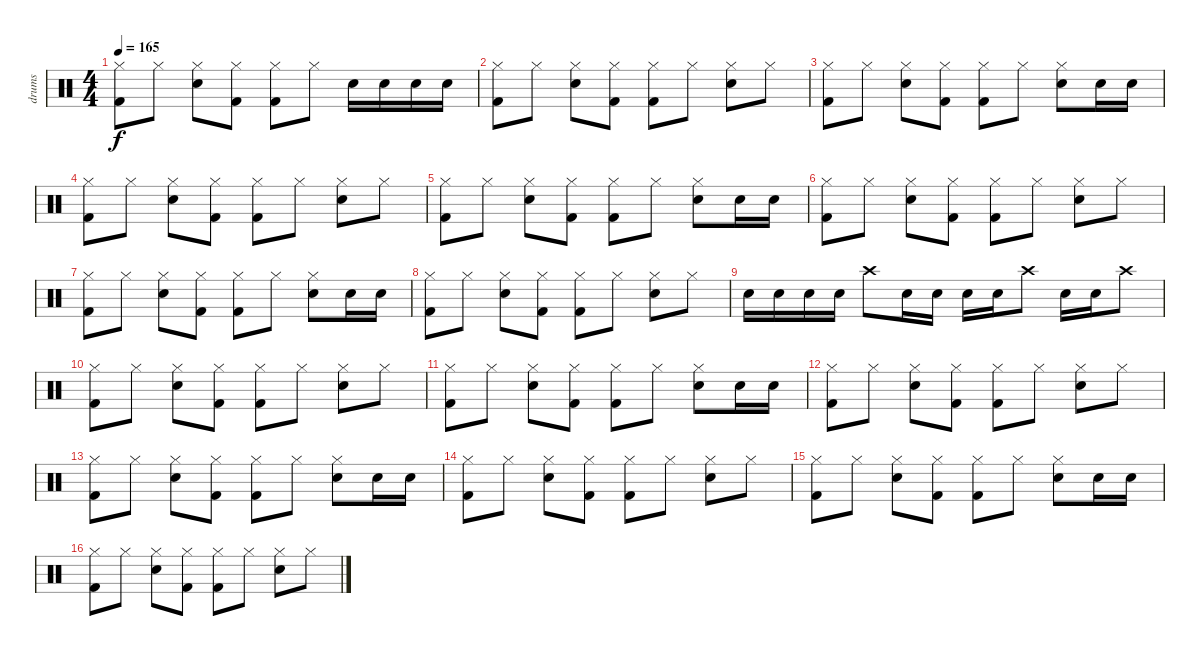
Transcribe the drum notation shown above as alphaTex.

\track ("drums" "drums") {instrument percussion}
\staff {score}
\articulation defaults
\ts (4 4)
\tempo 165
\clef neutral
\ks c
("Hi-Hat (closed)" "Kick (hit) 2").8{dy f} "Hi-Hat (closed)".8 ("Snare (hit) 2" "Hi-Hat (closed)").8 ("Hi-Hat (closed)" "Kick (hit) 2").8 ("Hi-Hat (closed)" "Kick (hit) 2").8 "Hi-Hat (closed)".8 "Snare (hit) 2".16 "Snare (hit) 2".16 "Snare (hit) 2".16 "Snare (hit) 2".16 |
("Hi-Hat (closed)" "Kick (hit) 2").8 "Hi-Hat (closed)".8 ("Snare (hit) 2" "Hi-Hat (closed)").8 ("Hi-Hat (closed)" "Kick (hit) 2").8 ("Hi-Hat (closed)" "Kick (hit) 2").8 "Hi-Hat (closed)".8 ("Snare (hit) 2" "Hi-Hat (closed)").8 "Hi-Hat (closed)".8 |
("Hi-Hat (closed)" "Kick (hit) 2").8 "Hi-Hat (closed)".8 ("Snare (hit) 2" "Hi-Hat (closed)").8 ("Hi-Hat (closed)" "Kick (hit) 2").8 ("Hi-Hat (closed)" "Kick (hit) 2").8 "Hi-Hat (closed)".8 ("Snare (hit) 2" "Hi-Hat (closed)").8 "Snare (hit) 2".16 "Snare (hit) 2".16 |
("Hi-Hat (closed)" "Kick (hit) 2").8 "Hi-Hat (closed)".8 ("Snare (hit) 2" "Hi-Hat (closed)").8 ("Hi-Hat (closed)" "Kick (hit) 2").8 ("Hi-Hat (closed)" "Kick (hit) 2").8 "Hi-Hat (closed)".8 ("Snare (hit) 2" "Hi-Hat (closed)").8 "Hi-Hat (closed)".8 |
("Hi-Hat (closed)" "Kick (hit) 2").8 "Hi-Hat (closed)".8 ("Snare (hit) 2" "Hi-Hat (closed)").8 ("Hi-Hat (closed)" "Kick (hit) 2").8 ("Hi-Hat (closed)" "Kick (hit) 2").8 "Hi-Hat (closed)".8 ("Snare (hit) 2" "Hi-Hat (closed)").8 "Snare (hit) 2".16 "Snare (hit) 2".16 |
("Hi-Hat (closed)" "Kick (hit) 2").8 "Hi-Hat (closed)".8 ("Snare (hit) 2" "Hi-Hat (closed)").8 ("Hi-Hat (closed)" "Kick (hit) 2").8 ("Hi-Hat (closed)" "Kick (hit) 2").8 "Hi-Hat (closed)".8 ("Snare (hit) 2" "Hi-Hat (closed)").8 "Hi-Hat (closed)".8 |
("Hi-Hat (closed)" "Kick (hit) 2").8 "Hi-Hat (closed)".8 ("Snare (hit) 2" "Hi-Hat (closed)").8 ("Hi-Hat (closed)" "Kick (hit) 2").8 ("Hi-Hat (closed)" "Kick (hit) 2").8 "Hi-Hat (closed)".8 ("Snare (hit) 2" "Hi-Hat (closed)").8 "Snare (hit) 2".16 "Snare (hit) 2".16 |
("Hi-Hat (closed)" "Kick (hit) 2").8 "Hi-Hat (closed)".8 ("Snare (hit) 2" "Hi-Hat (closed)").8 ("Hi-Hat (closed)" "Kick (hit) 2").8 ("Hi-Hat (closed)" "Kick (hit) 2").8 "Hi-Hat (closed)".8 ("Snare (hit) 2" "Hi-Hat (closed)").8 "Hi-Hat (closed)".8 |
"Snare (hit) 2".16 "Snare (hit) 2".16 "Snare (hit) 2".16 "Snare (hit) 2".16 "Crash high (hit)".8 "Snare (hit) 2".16 "Snare (hit) 2".16 "Snare (hit) 2".16 "Snare (hit) 2".16 "Crash high (hit)".8 "Snare (hit) 2".16 "Snare (hit) 2".16 "Crash high (hit)".8 |
("Hi-Hat (closed)" "Kick (hit) 2").8 "Hi-Hat (closed)".8 ("Snare (hit) 2" "Hi-Hat (closed)").8 ("Hi-Hat (closed)" "Kick (hit) 2").8 ("Hi-Hat (closed)" "Kick (hit) 2").8 "Hi-Hat (closed)".8 ("Snare (hit) 2" "Hi-Hat (closed)").8 "Hi-Hat (closed)".8 |
("Hi-Hat (closed)" "Kick (hit) 2").8 "Hi-Hat (closed)".8 ("Snare (hit) 2" "Hi-Hat (closed)").8 ("Hi-Hat (closed)" "Kick (hit) 2").8 ("Hi-Hat (closed)" "Kick (hit) 2").8 "Hi-Hat (closed)".8 ("Snare (hit) 2" "Hi-Hat (closed)").8 "Snare (hit) 2".16 "Snare (hit) 2".16 |
("Hi-Hat (closed)" "Kick (hit) 2").8 "Hi-Hat (closed)".8 ("Snare (hit) 2" "Hi-Hat (closed)").8 ("Hi-Hat (closed)" "Kick (hit) 2").8 ("Hi-Hat (closed)" "Kick (hit) 2").8 "Hi-Hat (closed)".8 ("Snare (hit) 2" "Hi-Hat (closed)").8 "Hi-Hat (closed)".8 |
("Hi-Hat (closed)" "Kick (hit) 2").8 "Hi-Hat (closed)".8 ("Snare (hit) 2" "Hi-Hat (closed)").8 ("Hi-Hat (closed)" "Kick (hit) 2").8 ("Hi-Hat (closed)" "Kick (hit) 2").8 "Hi-Hat (closed)".8 ("Snare (hit) 2" "Hi-Hat (closed)").8 "Snare (hit) 2".16 "Snare (hit) 2".16 |
("Hi-Hat (closed)" "Kick (hit) 2").8 "Hi-Hat (closed)".8 ("Snare (hit) 2" "Hi-Hat (closed)").8 ("Hi-Hat (closed)" "Kick (hit) 2").8 ("Hi-Hat (closed)" "Kick (hit) 2").8 "Hi-Hat (closed)".8 ("Snare (hit) 2" "Hi-Hat (closed)").8 "Hi-Hat (closed)".8 |
("Hi-Hat (closed)" "Kick (hit) 2").8 "Hi-Hat (closed)".8 ("Snare (hit) 2" "Hi-Hat (closed)").8 ("Hi-Hat (closed)" "Kick (hit) 2").8 ("Hi-Hat (closed)" "Kick (hit) 2").8 "Hi-Hat (closed)".8 ("Snare (hit) 2" "Hi-Hat (closed)").8 "Snare (hit) 2".16 "Snare (hit) 2".16 |
("Hi-Hat (closed)" "Kick (hit) 2").8 "Hi-Hat (closed)".8 ("Snare (hit) 2" "Hi-Hat (closed)").8 ("Hi-Hat (closed)" "Kick (hit) 2").8 ("Hi-Hat (closed)" "Kick (hit) 2").8 "Hi-Hat (closed)".8 ("Snare (hit) 2" "Hi-Hat (closed)").8 "Hi-Hat (closed)".8
